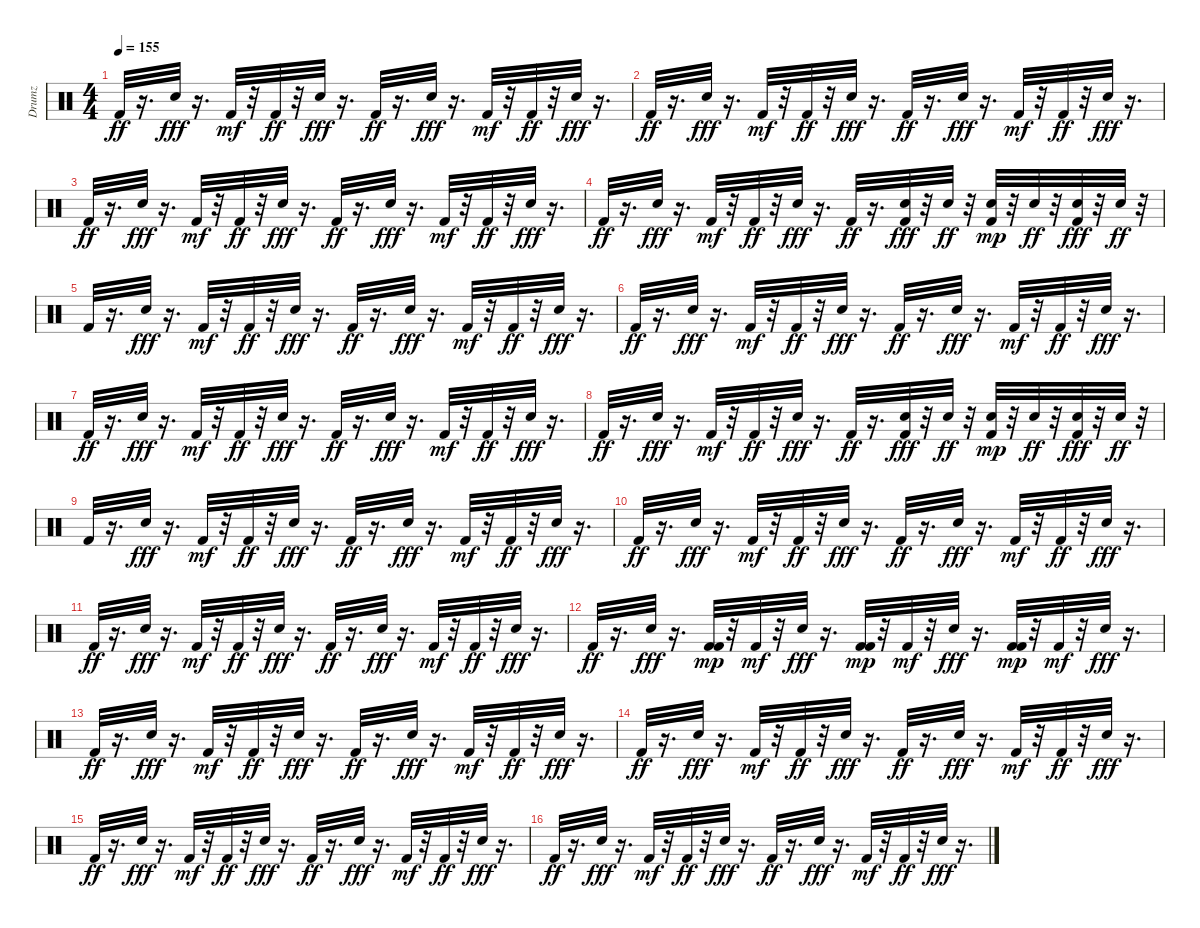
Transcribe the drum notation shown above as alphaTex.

\track ("Drumz" "Drumz") {instrument percussion}
\staff {score}
\articulation defaults
\ts (4 4)
\tempo 155
\clef neutral
\ks c "Kick (hit) 2".32{dy ff}
r.16{d} "Snare (hit) 2".32{dy fff} r.16{d} "Kick (hit) 2".32{dy mf} r.32 "Kick (hit) 2".32{dy ff} r.32 "Snare (hit) 2".32{dy fff} r.16{d} "Kick (hit) 2".32{dy ff} r.16{d} "Snare (hit) 2".32{dy fff} r.16{d} "Kick (hit) 2".32{dy mf} r.32 "Kick (hit) 2".32{dy ff} r.32 "Snare (hit) 2".32{dy fff} r.16{d} |
"Kick (hit) 2".32{dy ff} r.16{d} "Snare (hit) 2".32{dy fff} r.16{d} "Kick (hit) 2".32{dy mf} r.32 "Kick (hit) 2".32{dy ff} r.32 "Snare (hit) 2".32{dy fff} r.16{d} "Kick (hit) 2".32{dy ff} r.16{d} "Snare (hit) 2".32{dy fff} r.16{d} "Kick (hit) 2".32{dy mf} r.32 "Kick (hit) 2".32{dy ff} r.32 "Snare (hit) 2".32{dy fff} r.16{d} |
"Kick (hit) 2".32{dy ff} r.16{d} "Snare (hit) 2".32{dy fff} r.16{d} "Kick (hit) 2".32{dy mf} r.32 "Kick (hit) 2".32{dy ff} r.32 "Snare (hit) 2".32{dy fff} r.16{d} "Kick (hit) 2".32{dy ff} r.16{d} "Snare (hit) 2".32{dy fff} r.16{d} "Kick (hit) 2".32{dy mf} r.32 "Kick (hit) 2".32{dy ff} r.32 "Snare (hit) 2".32{dy fff} r.16{d} |
"Kick (hit) 2".32{dy ff} r.16{d} "Snare (hit) 2".32{dy fff} r.16{d} "Kick (hit) 2".32{dy mf} r.32 "Kick (hit) 2".32{dy ff} r.32 "Snare (hit) 2".32{dy fff} r.16{d} "Kick (hit) 2".32{dy ff} r.16{d} ("Kick (hit) 2" "Snare (hit) 2").32{dy fff} r.32 "Snare (hit) 2".32{dy ff} r.32 ("Kick (hit) 2" "Snare (hit) 2").32{dy mp} r.32 "Snare (hit) 2".32{dy ff} r.32 ("Kick (hit) 2" "Snare (hit) 2").32{dy fff} r.32 "Snare (hit) 2".32{dy ff} r.32 |
"Kick (hit) 2".32 r.16{d} "Snare (hit) 2".32{dy fff} r.16{d} "Kick (hit) 2".32{dy mf} r.32 "Kick (hit) 2".32{dy ff} r.32 "Snare (hit) 2".32{dy fff} r.16{d} "Kick (hit) 2".32{dy ff} r.16{d} "Snare (hit) 2".32{dy fff} r.16{d} "Kick (hit) 2".32{dy mf} r.32 "Kick (hit) 2".32{dy ff} r.32 "Snare (hit) 2".32{dy fff} r.16{d} |
"Kick (hit) 2".32{dy ff} r.16{d} "Snare (hit) 2".32{dy fff} r.16{d} "Kick (hit) 2".32{dy mf} r.32 "Kick (hit) 2".32{dy ff} r.32 "Snare (hit) 2".32{dy fff} r.16{d} "Kick (hit) 2".32{dy ff} r.16{d} "Snare (hit) 2".32{dy fff} r.16{d} "Kick (hit) 2".32{dy mf} r.32 "Kick (hit) 2".32{dy ff} r.32 "Snare (hit) 2".32{dy fff} r.16{d} |
"Kick (hit) 2".32{dy ff} r.16{d} "Snare (hit) 2".32{dy fff} r.16{d} "Kick (hit) 2".32{dy mf} r.32 "Kick (hit) 2".32{dy ff} r.32 "Snare (hit) 2".32{dy fff} r.16{d} "Kick (hit) 2".32{dy ff} r.16{d} "Snare (hit) 2".32{dy fff} r.16{d} "Kick (hit) 2".32{dy mf} r.32 "Kick (hit) 2".32{dy ff} r.32 "Snare (hit) 2".32{dy fff} r.16{d} |
"Kick (hit) 2".32{dy ff} r.16{d} "Snare (hit) 2".32{dy fff} r.16{d} "Kick (hit) 2".32{dy mf} r.32 "Kick (hit) 2".32{dy ff} r.32 "Snare (hit) 2".32{dy fff} r.16{d} "Kick (hit) 2".32{dy ff} r.16{d} ("Kick (hit) 2" "Snare (hit) 2").32{dy fff} r.32 "Snare (hit) 2".32{dy ff} r.32 ("Kick (hit) 2" "Snare (hit) 2").32{dy mp} r.32 "Snare (hit) 2".32{dy ff} r.32 ("Kick (hit) 2" "Snare (hit) 2").32{dy fff} r.32 "Snare (hit) 2".32{dy ff} r.32 |
"Kick (hit) 2".32 r.16{d} "Snare (hit) 2".32{dy fff} r.16{d} "Kick (hit) 2".32{dy mf} r.32 "Kick (hit) 2".32{dy ff} r.32 "Snare (hit) 2".32{dy fff} r.16{d} "Kick (hit) 2".32{dy ff} r.16{d} "Snare (hit) 2".32{dy fff} r.16{d} "Kick (hit) 2".32{dy mf} r.32 "Kick (hit) 2".32{dy ff} r.32 "Snare (hit) 2".32{dy fff} r.16{d} |
"Kick (hit) 2".32{dy ff} r.16{d} "Snare (hit) 2".32{dy fff} r.16{d} "Kick (hit) 2".32{dy mf} r.32 "Kick (hit) 2".32{dy ff} r.32 "Snare (hit) 2".32{dy fff} r.16{d} "Kick (hit) 2".32{dy ff} r.16{d} "Snare (hit) 2".32{dy fff} r.16{d} "Kick (hit) 2".32{dy mf} r.32 "Kick (hit) 2".32{dy ff} r.32 "Snare (hit) 2".32{dy fff} r.16{d} |
"Kick (hit) 2".32{dy ff} r.16{d} "Snare (hit) 2".32{dy fff} r.16{d} "Kick (hit) 2".32{dy mf} r.32 "Kick (hit) 2".32{dy ff} r.32 "Snare (hit) 2".32{dy fff} r.16{d} "Kick (hit) 2".32{dy ff} r.16{d} "Snare (hit) 2".32{dy fff} r.16{d} "Kick (hit) 2".32{dy mf} r.32 "Kick (hit) 2".32{dy ff} r.32 "Snare (hit) 2".32{dy fff} r.16{d} |
"Kick (hit) 2".32{dy ff} r.16{d} "Snare (hit) 2".32{dy fff} r.16{d} ("Kick (hit) 2" "Kick (hit) 2").32{dy mp} r.32 "Kick (hit) 2".32{dy mf} r.32 "Snare (hit) 2".32{dy fff} r.16{d} ("Kick (hit) 2" "Kick (hit) 2").32{dy mp} r.32 "Kick (hit) 2".32{dy mf} r.32 "Snare (hit) 2".32{dy fff} r.16{d} ("Kick (hit) 2" "Kick (hit) 2").32{dy mp} r.32 "Kick (hit) 2".32{dy mf} r.32 "Snare (hit) 2".32{dy fff} r.16{d} |
"Kick (hit) 2".32{dy ff} r.16{d} "Snare (hit) 2".32{dy fff} r.16{d} "Kick (hit) 2".32{dy mf} r.32 "Kick (hit) 2".32{dy ff} r.32 "Snare (hit) 2".32{dy fff} r.16{d} "Kick (hit) 2".32{dy ff} r.16{d} "Snare (hit) 2".32{dy fff} r.16{d} "Kick (hit) 2".32{dy mf} r.32 "Kick (hit) 2".32{dy ff} r.32 "Snare (hit) 2".32{dy fff} r.16{d} |
"Kick (hit) 2".32{dy ff} r.16{d} "Snare (hit) 2".32{dy fff} r.16{d} "Kick (hit) 2".32{dy mf} r.32 "Kick (hit) 2".32{dy ff} r.32 "Snare (hit) 2".32{dy fff} r.16{d} "Kick (hit) 2".32{dy ff} r.16{d} "Snare (hit) 2".32{dy fff} r.16{d} "Kick (hit) 2".32{dy mf} r.32 "Kick (hit) 2".32{dy ff} r.32 "Snare (hit) 2".32{dy fff} r.16{d} |
"Kick (hit) 2".32{dy ff} r.16{d} "Snare (hit) 2".32{dy fff} r.16{d} "Kick (hit) 2".32{dy mf} r.32 "Kick (hit) 2".32{dy ff} r.32 "Snare (hit) 2".32{dy fff} r.16{d} "Kick (hit) 2".32{dy ff} r.16{d} "Snare (hit) 2".32{dy fff} r.16{d} "Kick (hit) 2".32{dy mf} r.32 "Kick (hit) 2".32{dy ff} r.32 "Snare (hit) 2".32{dy fff} r.16{d} |
"Kick (hit) 2".32{dy ff} r.16{d} "Snare (hit) 2".32{dy fff} r.16{d} "Kick (hit) 2".32{dy mf} r.32 "Kick (hit) 2".32{dy ff} r.32 "Snare (hit) 2".32{dy fff} r.16{d} "Kick (hit) 2".32{dy ff} r.16{d} "Snare (hit) 2".32{dy fff} r.16{d} "Kick (hit) 2".32{dy mf} r.32 "Kick (hit) 2".32{dy ff} r.32 "Snare (hit) 2".32{dy fff} r.16{d}
